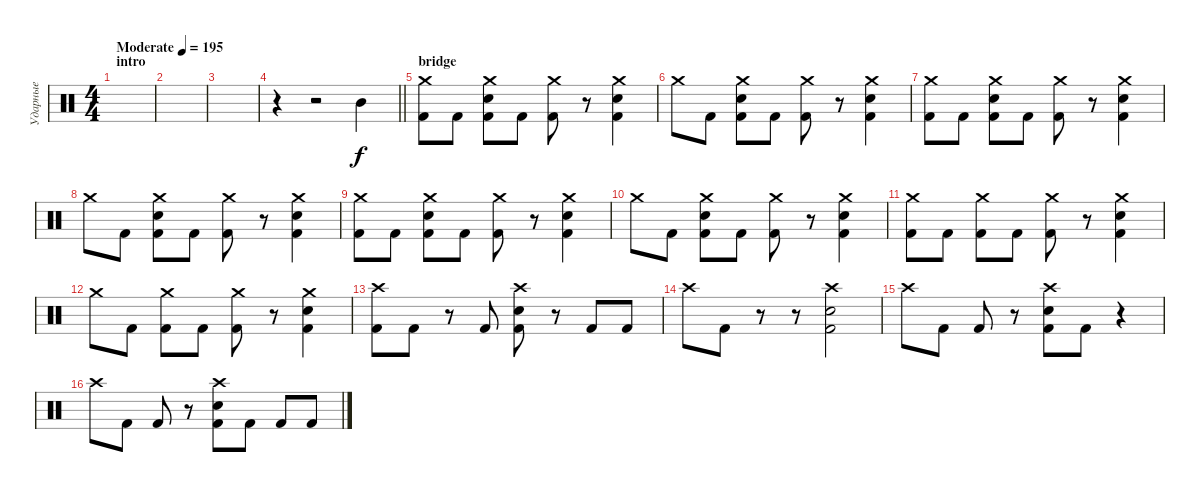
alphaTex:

\track ("Ударные" "Ударные") {instrument percussion}
\staff {score}
\articulation defaults
\ts (4 4)
\section ("" "intro ")
\tempo (195 "Moderate")
\clef neutral
\ks c
|
|
|
\barLineRight lightlight
r.4 r.2 "Mid Tom (hit)".4 |
\section ("" "bridge")
("Crash medium (hit)" "Kick (hit) 2").8 "Kick (hit) 2".8 ("Crash medium (hit)" "Electric Snare (hit)" "Kick (hit) 2").8 "Kick (hit) 2".8 ("Crash medium (hit)" "Kick (hit) 2").8 r.8 ("Crash medium (hit)" "Electric Snare (hit)" "Kick (hit) 2").4 |
"Crash medium (hit)".8 "Kick (hit) 2".8 ("Crash medium (hit)" "Electric Snare (hit)" "Kick (hit) 2").8 "Kick (hit) 2".8 ("Crash medium (hit)" "Kick (hit) 2").8 r.8 ("Crash medium (hit)" "Electric Snare (hit)" "Kick (hit) 2").4 |
("Crash medium (hit)" "Kick (hit) 2").8 "Kick (hit) 2".8 ("Crash medium (hit)" "Electric Snare (hit)" "Kick (hit) 2").8 "Kick (hit) 2".8 ("Crash medium (hit)" "Kick (hit) 2").8 r.8 ("Crash medium (hit)" "Electric Snare (hit)" "Kick (hit) 2").4 |
"Crash medium (hit)".8 "Kick (hit) 2".8 ("Crash medium (hit)" "Electric Snare (hit)" "Kick (hit) 2").8 "Kick (hit) 2".8 ("Crash medium (hit)" "Kick (hit) 2").8 r.8 ("Crash medium (hit)" "Electric Snare (hit)" "Kick (hit) 2").4 |
("Crash medium (hit)" "Kick (hit) 2").8 "Kick (hit) 2".8 ("Crash medium (hit)" "Electric Snare (hit)" "Kick (hit) 2").8 "Kick (hit) 2".8 ("Crash medium (hit)" "Kick (hit) 2").8 r.8 ("Crash medium (hit)" "Electric Snare (hit)" "Kick (hit) 2").4 |
"Crash medium (hit)".8 "Kick (hit) 2".8 ("Crash medium (hit)" "Electric Snare (hit)" "Kick (hit) 2").8 "Kick (hit) 2".8 ("Crash medium (hit)" "Kick (hit) 2").8 r.8 ("Crash medium (hit)" "Electric Snare (hit)" "Kick (hit) 2").4 |
("Crash medium (hit)" "Kick (hit) 2").8 "Kick (hit) 2".8 ("Crash medium (hit)" "Kick (hit) 2").8 "Kick (hit) 2".8 ("Crash medium (hit)" "Kick (hit) 2").8 r.8 ("Crash medium (hit)" "Electric Snare (hit)" "Kick (hit) 2").4 |
"Crash medium (hit)".8 "Kick (hit) 2".8 ("Crash medium (hit)" "Kick (hit) 2").8 "Kick (hit) 2".8 ("Crash medium (hit)" "Kick (hit) 2").8 r.8 ("Crash medium (hit)" "Electric Snare (hit)" "Kick (hit) 2").4 |
("Crash high (hit)" "Kick (hit) 2").8 "Kick (hit) 2".8 r.8 "Kick (hit) 2".8 ("Crash high (hit)" "Electric Snare (hit)" "Kick (hit) 2").8 r.8 "Kick (hit) 2".8 "Kick (hit) 2".8 |
"Crash high (hit)".8 "Kick (hit) 2".8 r.8 r.8 ("Crash high (hit)" "Electric Snare (hit)" "Kick (hit) 2").2 |
"Crash high (hit)".8 "Kick (hit) 2".8 "Kick (hit) 2".8 r.8 ("Crash high (hit)" "Electric Snare (hit)" "Kick (hit) 2").8 "Kick (hit) 2".8 r.4 |
"Crash high (hit)".8 "Kick (hit) 2".8 "Kick (hit) 2".8 r.8 ("Crash high (hit)" "Electric Snare (hit)" "Kick (hit) 2").8 "Kick (hit) 2".8 "Kick (hit) 2".8 "Kick (hit) 2".8
